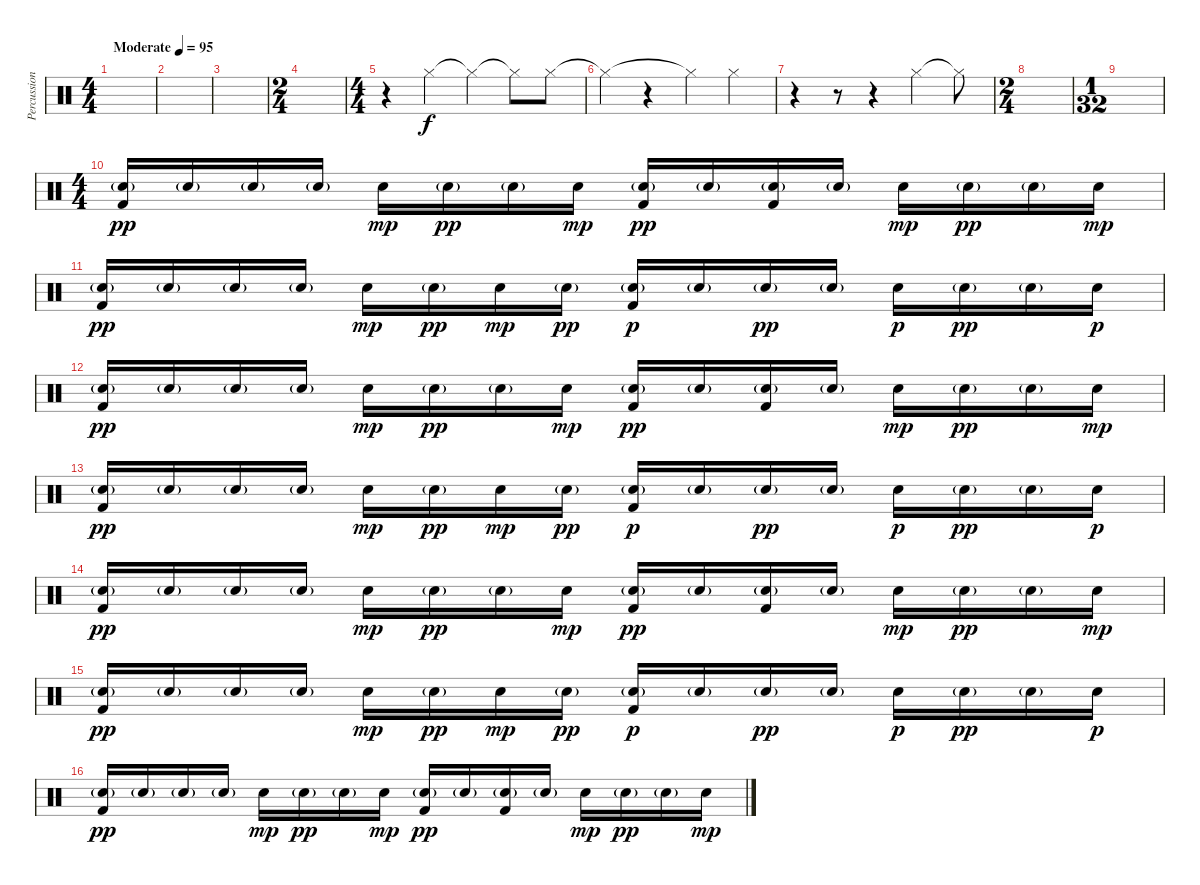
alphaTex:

\track ("Percussions" "Percussion") {instrument percussion}
\staff {score}
\articulation defaults
\ts (4 4)
\tempo (95 "Moderate")
\clef neutral
\ks c
|
|
|
\ts (2 4)
|
\ts (4 4)
r.4 "Hi-Hat (closed)".4 "Hi-Hat (closed)"{t}.4 "Hi-Hat (closed)"{t}.8 "Hi-Hat (closed)".8 |
"Hi-Hat (closed)"{t}.4 r.4 "Hi-Hat (closed)"{t}.4 "Hi-Hat (closed)".4 |
r.4 r.8 r.4 "Hi-Hat (closed)".4 "Hi-Hat (closed)"{t}.8 |
\ts (2 4)
|
\ts (1 32)
|
\ts (4 4)
("Kick (hit) 2" "Snare (hit) 2"{g}).16{dy pp} "Snare (hit) 2"{g}.16 "Snare (hit) 2"{g}.16 "Snare (hit) 2"{g}.16 "Snare (hit) 2".16{dy mp} "Snare (hit) 2"{g}.16{dy pp} "Snare (hit) 2"{g}.16 "Snare (hit) 2".16{dy mp} ("Kick (hit) 2" "Snare (hit) 2"{g}).16{dy pp} "Snare (hit) 2"{g}.16 ("Kick (hit) 2" "Snare (hit) 2"{g}).16 "Snare (hit) 2"{g}.16 "Snare (hit) 2".16{dy mp} "Snare (hit) 2"{g}.16{dy pp} "Snare (hit) 2"{g}.16 "Snare (hit) 2".16{dy mp} |
("Kick (hit) 2" "Snare (hit) 2"{g}).16{dy pp} "Snare (hit) 2"{g}.16 "Snare (hit) 2"{g}.16 "Snare (hit) 2"{g}.16 "Snare (hit) 2".16{dy mp} "Snare (hit) 2"{g}.16{dy pp} "Snare (hit) 2".16{dy mp} "Snare (hit) 2"{g}.16{dy pp} ("Kick (hit) 2" "Snare (hit) 2"{g}).16{dy p} "Snare (hit) 2"{g}.16 "Snare (hit) 2"{g}.16{dy pp} "Snare (hit) 2"{g}.16 "Snare (hit) 2".16{dy p} "Snare (hit) 2"{g}.16{dy pp} "Snare (hit) 2"{g}.16 "Snare (hit) 2".16{dy p} |
("Kick (hit) 2" "Snare (hit) 2"{g}).16{dy pp} "Snare (hit) 2"{g}.16 "Snare (hit) 2"{g}.16 "Snare (hit) 2"{g}.16 "Snare (hit) 2".16{dy mp} "Snare (hit) 2"{g}.16{dy pp} "Snare (hit) 2"{g}.16 "Snare (hit) 2".16{dy mp} ("Kick (hit) 2" "Snare (hit) 2"{g}).16{dy pp} "Snare (hit) 2"{g}.16 ("Kick (hit) 2" "Snare (hit) 2"{g}).16 "Snare (hit) 2"{g}.16 "Snare (hit) 2".16{dy mp} "Snare (hit) 2"{g}.16{dy pp} "Snare (hit) 2"{g}.16 "Snare (hit) 2".16{dy mp} |
("Kick (hit) 2" "Snare (hit) 2"{g}).16{dy pp} "Snare (hit) 2"{g}.16 "Snare (hit) 2"{g}.16 "Snare (hit) 2"{g}.16 "Snare (hit) 2".16{dy mp} "Snare (hit) 2"{g}.16{dy pp} "Snare (hit) 2".16{dy mp} "Snare (hit) 2"{g}.16{dy pp} ("Kick (hit) 2" "Snare (hit) 2"{g}).16{dy p} "Snare (hit) 2"{g}.16 "Snare (hit) 2"{g}.16{dy pp} "Snare (hit) 2"{g}.16 "Snare (hit) 2".16{dy p} "Snare (hit) 2"{g}.16{dy pp} "Snare (hit) 2"{g}.16 "Snare (hit) 2".16{dy p} |
("Kick (hit) 2" "Snare (hit) 2"{g}).16{dy pp} "Snare (hit) 2"{g}.16 "Snare (hit) 2"{g}.16 "Snare (hit) 2"{g}.16 "Snare (hit) 2".16{dy mp} "Snare (hit) 2"{g}.16{dy pp} "Snare (hit) 2"{g}.16 "Snare (hit) 2".16{dy mp} ("Kick (hit) 2" "Snare (hit) 2"{g}).16{dy pp} "Snare (hit) 2"{g}.16 ("Kick (hit) 2" "Snare (hit) 2"{g}).16 "Snare (hit) 2"{g}.16 "Snare (hit) 2".16{dy mp} "Snare (hit) 2"{g}.16{dy pp} "Snare (hit) 2"{g}.16 "Snare (hit) 2".16{dy mp} |
("Kick (hit) 2" "Snare (hit) 2"{g}).16{dy pp} "Snare (hit) 2"{g}.16 "Snare (hit) 2"{g}.16 "Snare (hit) 2"{g}.16 "Snare (hit) 2".16{dy mp} "Snare (hit) 2"{g}.16{dy pp} "Snare (hit) 2".16{dy mp} "Snare (hit) 2"{g}.16{dy pp} ("Kick (hit) 2" "Snare (hit) 2"{g}).16{dy p} "Snare (hit) 2"{g}.16 "Snare (hit) 2"{g}.16{dy pp} "Snare (hit) 2"{g}.16 "Snare (hit) 2".16{dy p} "Snare (hit) 2"{g}.16{dy pp} "Snare (hit) 2"{g}.16 "Snare (hit) 2".16{dy p} |
("Kick (hit) 2" "Snare (hit) 2"{g}).16{dy pp} "Snare (hit) 2"{g}.16 "Snare (hit) 2"{g}.16 "Snare (hit) 2"{g}.16 "Snare (hit) 2".16{dy mp} "Snare (hit) 2"{g}.16{dy pp} "Snare (hit) 2"{g}.16 "Snare (hit) 2".16{dy mp} ("Kick (hit) 2" "Snare (hit) 2"{g}).16{dy pp} "Snare (hit) 2"{g}.16 ("Kick (hit) 2" "Snare (hit) 2"{g}).16 "Snare (hit) 2"{g}.16 "Snare (hit) 2".16{dy mp} "Snare (hit) 2"{g}.16{dy pp} "Snare (hit) 2"{g}.16 "Snare (hit) 2".16{dy mp}
